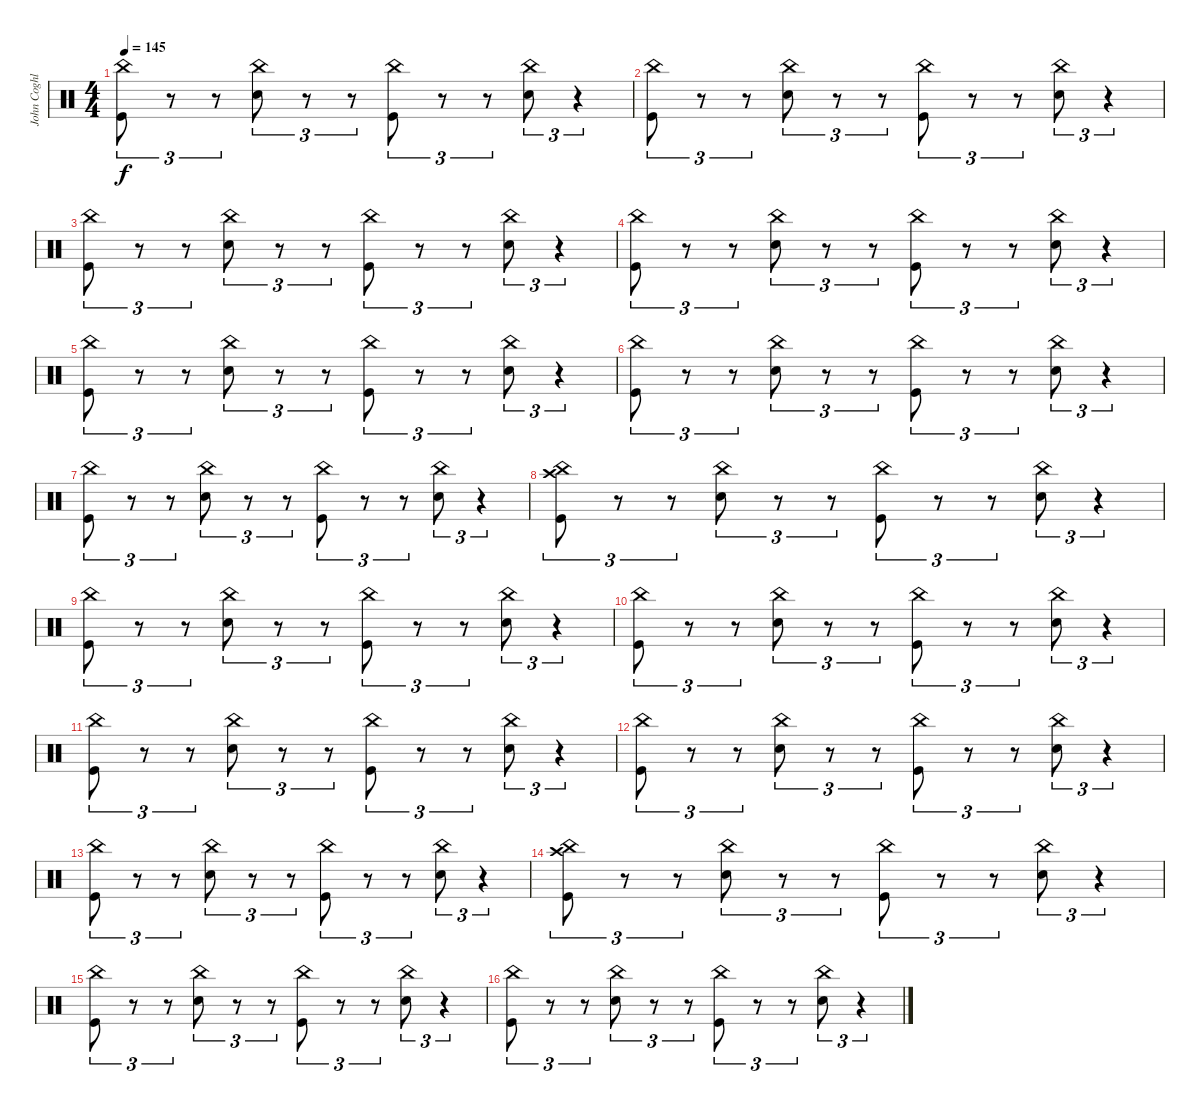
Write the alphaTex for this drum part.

\track ("John Coghlan" "John Coghl") {instrument percussion}
\staff {score}
\articulation defaults
\ts (4 4)
\tempo 145
\clef neutral
\ks c
("China (hit)" "Kick (hit)").8{tu (3 2) dy f} r.8{tu (3 2)} r.8{tu (3 2)} ("Electric Snare (hit)" "China (hit)").8{tu (3 2)} r.8{tu (3 2)} r.8{tu (3 2)} ("China (hit)" "Kick (hit)").8{tu (3 2)} r.8{tu (3 2)} r.8{tu (3 2)} ("Electric Snare (hit)" "China (hit)").8{tu (3 2)} r.4{tu (3 2)} |
("China (hit)" "Kick (hit)").8{tu (3 2)} r.8{tu (3 2)} r.8{tu (3 2)} ("Electric Snare (hit)" "China (hit)").8{tu (3 2)} r.8{tu (3 2)} r.8{tu (3 2)} ("China (hit)" "Kick (hit)").8{tu (3 2)} r.8{tu (3 2)} r.8{tu (3 2)} ("Electric Snare (hit)" "China (hit)").8{tu (3 2)} r.4{tu (3 2)} |
("China (hit)" "Kick (hit)").8{tu (3 2)} r.8{tu (3 2)} r.8{tu (3 2)} ("Electric Snare (hit)" "China (hit)").8{tu (3 2)} r.8{tu (3 2)} r.8{tu (3 2)} ("China (hit)" "Kick (hit)").8{tu (3 2)} r.8{tu (3 2)} r.8{tu (3 2)} ("Electric Snare (hit)" "China (hit)").8{tu (3 2)} r.4{tu (3 2)} |
("China (hit)" "Kick (hit)").8{tu (3 2)} r.8{tu (3 2)} r.8{tu (3 2)} ("Electric Snare (hit)" "China (hit)").8{tu (3 2)} r.8{tu (3 2)} r.8{tu (3 2)} ("China (hit)" "Kick (hit)").8{tu (3 2)} r.8{tu (3 2)} r.8{tu (3 2)} ("Electric Snare (hit)" "China (hit)").8{tu (3 2)} r.4{tu (3 2)} |
("China (hit)" "Kick (hit)").8{tu (3 2)} r.8{tu (3 2)} r.8{tu (3 2)} ("Electric Snare (hit)" "China (hit)").8{tu (3 2)} r.8{tu (3 2)} r.8{tu (3 2)} ("China (hit)" "Kick (hit)").8{tu (3 2)} r.8{tu (3 2)} r.8{tu (3 2)} ("Electric Snare (hit)" "China (hit)").8{tu (3 2)} r.4{tu (3 2)} |
("China (hit)" "Kick (hit)").8{tu (3 2)} r.8{tu (3 2)} r.8{tu (3 2)} ("Electric Snare (hit)" "China (hit)").8{tu (3 2)} r.8{tu (3 2)} r.8{tu (3 2)} ("China (hit)" "Kick (hit)").8{tu (3 2)} r.8{tu (3 2)} r.8{tu (3 2)} ("Electric Snare (hit)" "China (hit)").8{tu (3 2)} r.4{tu (3 2)} |
("China (hit)" "Kick (hit)").8{tu (3 2)} r.8{tu (3 2)} r.8{tu (3 2)} ("Electric Snare (hit)" "China (hit)").8{tu (3 2)} r.8{tu (3 2)} r.8{tu (3 2)} ("China (hit)" "Kick (hit)").8{tu (3 2)} r.8{tu (3 2)} r.8{tu (3 2)} ("Electric Snare (hit)" "China (hit)").8{tu (3 2)} r.4{tu (3 2)} |
("Crash high (hit)" "China (hit)" "Kick (hit)").8{tu (3 2)} r.8{tu (3 2)} r.8{tu (3 2)} ("Electric Snare (hit)" "China (hit)").8{tu (3 2)} r.8{tu (3 2)} r.8{tu (3 2)} ("China (hit)" "Kick (hit)").8{tu (3 2)} r.8{tu (3 2)} r.8{tu (3 2)} ("Electric Snare (hit)" "China (hit)").8{tu (3 2)} r.4{tu (3 2)} |
("China (hit)" "Kick (hit)").8{tu (3 2)} r.8{tu (3 2)} r.8{tu (3 2)} ("Electric Snare (hit)" "China (hit)").8{tu (3 2)} r.8{tu (3 2)} r.8{tu (3 2)} ("China (hit)" "Kick (hit)").8{tu (3 2)} r.8{tu (3 2)} r.8{tu (3 2)} ("Electric Snare (hit)" "China (hit)").8{tu (3 2)} r.4{tu (3 2)} |
("China (hit)" "Kick (hit)").8{tu (3 2)} r.8{tu (3 2)} r.8{tu (3 2)} ("Electric Snare (hit)" "China (hit)").8{tu (3 2)} r.8{tu (3 2)} r.8{tu (3 2)} ("China (hit)" "Kick (hit)").8{tu (3 2)} r.8{tu (3 2)} r.8{tu (3 2)} ("Electric Snare (hit)" "China (hit)").8{tu (3 2)} r.4{tu (3 2)} |
("China (hit)" "Kick (hit)").8{tu (3 2)} r.8{tu (3 2)} r.8{tu (3 2)} ("Electric Snare (hit)" "China (hit)").8{tu (3 2)} r.8{tu (3 2)} r.8{tu (3 2)} ("China (hit)" "Kick (hit)").8{tu (3 2)} r.8{tu (3 2)} r.8{tu (3 2)} ("Electric Snare (hit)" "China (hit)").8{tu (3 2)} r.4{tu (3 2)} |
("China (hit)" "Kick (hit)").8{tu (3 2)} r.8{tu (3 2)} r.8{tu (3 2)} ("Electric Snare (hit)" "China (hit)").8{tu (3 2)} r.8{tu (3 2)} r.8{tu (3 2)} ("China (hit)" "Kick (hit)").8{tu (3 2)} r.8{tu (3 2)} r.8{tu (3 2)} ("Electric Snare (hit)" "China (hit)").8{tu (3 2)} r.4{tu (3 2)} |
("China (hit)" "Kick (hit)").8{tu (3 2)} r.8{tu (3 2)} r.8{tu (3 2)} ("Electric Snare (hit)" "China (hit)").8{tu (3 2)} r.8{tu (3 2)} r.8{tu (3 2)} ("China (hit)" "Kick (hit)").8{tu (3 2)} r.8{tu (3 2)} r.8{tu (3 2)} ("Electric Snare (hit)" "China (hit)").8{tu (3 2)} r.4{tu (3 2)} |
("Crash high (hit)" "China (hit)" "Kick (hit)").8{tu (3 2)} r.8{tu (3 2)} r.8{tu (3 2)} ("Electric Snare (hit)" "China (hit)").8{tu (3 2)} r.8{tu (3 2)} r.8{tu (3 2)} ("China (hit)" "Kick (hit)").8{tu (3 2)} r.8{tu (3 2)} r.8{tu (3 2)} ("Electric Snare (hit)" "China (hit)").8{tu (3 2)} r.4{tu (3 2)} |
("China (hit)" "Kick (hit)").8{tu (3 2)} r.8{tu (3 2)} r.8{tu (3 2)} ("Electric Snare (hit)" "China (hit)").8{tu (3 2)} r.8{tu (3 2)} r.8{tu (3 2)} ("China (hit)" "Kick (hit)").8{tu (3 2)} r.8{tu (3 2)} r.8{tu (3 2)} ("Electric Snare (hit)" "China (hit)").8{tu (3 2)} r.4{tu (3 2)} |
("China (hit)" "Kick (hit)").8{tu (3 2)} r.8{tu (3 2)} r.8{tu (3 2)} ("Electric Snare (hit)" "China (hit)").8{tu (3 2)} r.8{tu (3 2)} r.8{tu (3 2)} ("China (hit)" "Kick (hit)").8{tu (3 2)} r.8{tu (3 2)} r.8{tu (3 2)} ("Electric Snare (hit)" "China (hit)").8{tu (3 2)} r.4{tu (3 2)}
